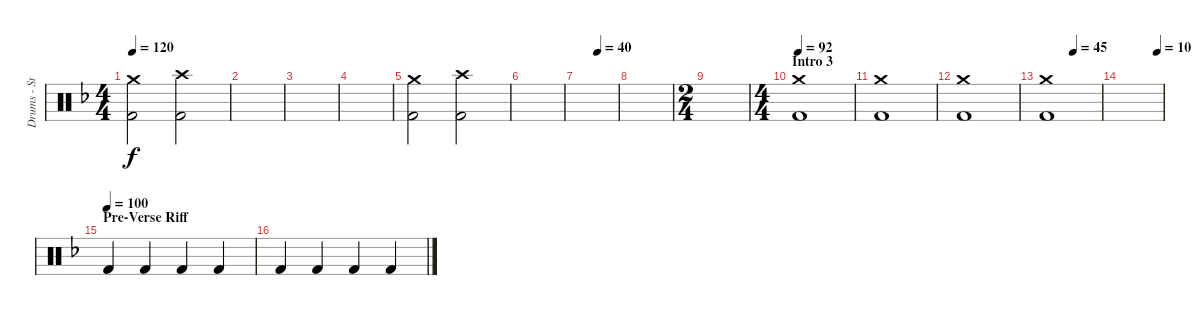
\track ("Drums - Steve Wacholz" "Drums - St") {instrument percussion}
\staff {score}
\articulation defaults
\ts (4 4)
\tempo 120
\clef neutral
\ks f
("Kick (hit) 2" "Crash medium (hit)").2{dy f} ("Kick (hit) 2" "Crash high (hit)").2 |
|
|
|
("Kick (hit) 2" "Crash medium (hit)").2 ("Kick (hit) 2" "Crash high (hit)").2 |
|
\tempo (40 0.5)
|
|
\ts (2 4)
|
\ts (4 4)
\section ("" "Intro 3")
\tempo 92
("Kick (hit) 2" "Crash medium (hit)").1 |
("Kick (hit) 2" "Crash medium (hit)").1 |
("Kick (hit) 2" "Crash medium (hit)").1 |
\tempo (45 0.5)
("Kick (hit) 2" "Crash medium (hit)").1 |
\tempo (10 0.875)
|
\section ("" "Pre-Verse Riff")
\tempo (100)
"Kick (hit) 2".4 "Kick (hit) 2".4 "Kick (hit) 2".4 "Kick (hit) 2".4 |
"Kick (hit) 2".4 "Kick (hit) 2".4 "Kick (hit) 2".4 "Kick (hit) 2".4
